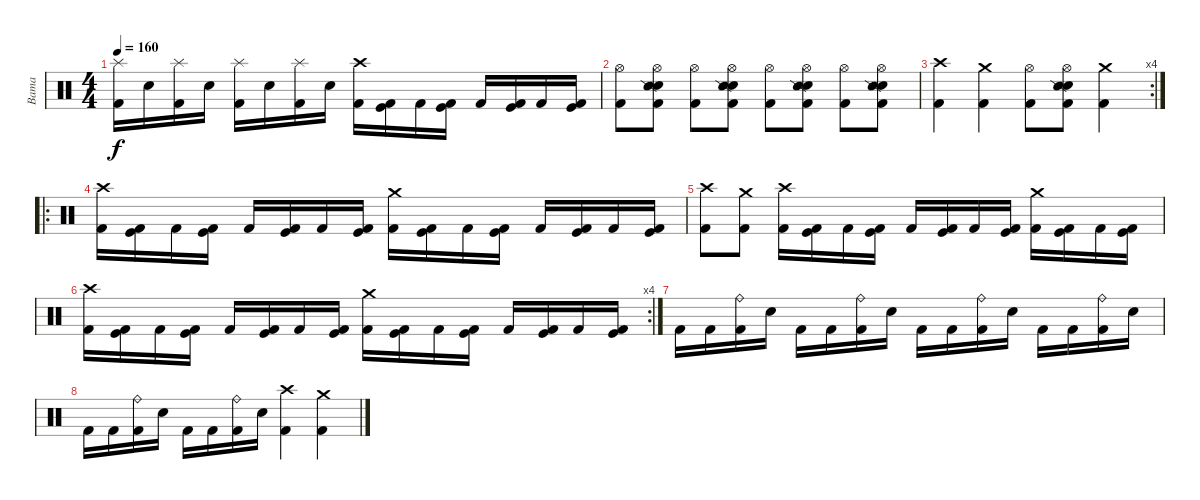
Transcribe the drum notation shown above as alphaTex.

\track ("Bama" "Bama") {instrument percussion}
\staff {score}
\articulation defaults
\ts (4 4)
\tempo 160
\clef neutral
\ks c
("Splash (hit)" "Kick (hit) 2").16{dy f} "Electric Snare (hit)".16 ("Splash (hit)" "Kick (hit) 2").16 "Electric Snare (hit)".16 ("Splash (hit)" "Kick (hit) 2").16 "Electric Snare (hit)".16 ("Splash (hit)" "Kick (hit) 2").16 "Electric Snare (hit)".16 ("Crash high (hit)" "Kick (hit) 2").16 ("Kick (hit)" "Kick (hit) 2").16 "Kick (hit) 2".16 ("Kick (hit)" "Kick (hit) 2").16 "Kick (hit) 2".16 ("Kick (hit)" "Kick (hit) 2").16 "Kick (hit) 2".16 ("Kick (hit)" "Kick (hit) 2").16 |
("Hi-Hat (open)" "Kick (hit) 2").8 ("Hi-Hat (open)" "Electric Snare (hit)" "Snare (side stick) 2" "Kick (hit) 2").8 ("Hi-Hat (open)" "Kick (hit) 2").8 ("Hi-Hat (open)" "Electric Snare (hit)" "Snare (side stick) 2" "Kick (hit) 2").8 ("Hi-Hat (open)" "Kick (hit) 2").8 ("Hi-Hat (open)" "Electric Snare (hit)" "Snare (side stick) 2" "Kick (hit) 2").8 ("Hi-Hat (open)" "Kick (hit) 2").8 ("Hi-Hat (open)" "Electric Snare (hit)" "Snare (side stick) 2" "Kick (hit) 2").8 |
\rc 4
("Crash high (hit)" "Kick (hit) 2").4 ("Crash medium (hit)" "Kick (hit) 2").4 ("Hi-Hat (open)" "Kick (hit) 2").8 ("Hi-Hat (open)" "Electric Snare (hit)" "Snare (side stick) 2" "Kick (hit) 2").8 ("Crash medium (hit)" "Kick (hit) 2").4 |
\ro
("Crash high (hit)" "Kick (hit) 2").16 ("Kick (hit)" "Kick (hit) 2").16 "Kick (hit) 2".16 ("Kick (hit)" "Kick (hit) 2").16 "Kick (hit) 2".16 ("Kick (hit)" "Kick (hit) 2").16 "Kick (hit) 2".16 ("Kick (hit)" "Kick (hit) 2").16 ("Crash medium (hit)" "Kick (hit) 2").16 ("Kick (hit)" "Kick (hit) 2").16 "Kick (hit) 2".16 ("Kick (hit)" "Kick (hit) 2").16 "Kick (hit) 2".16 ("Kick (hit)" "Kick (hit) 2").16 "Kick (hit) 2".16 ("Kick (hit)" "Kick (hit) 2").16 |
("Crash high (hit)" "Kick (hit) 2").8 ("Crash medium (hit)" "Kick (hit) 2").8 ("Crash high (hit)" "Kick (hit) 2").16 ("Kick (hit)" "Kick (hit) 2").16 "Kick (hit) 2".16 ("Kick (hit)" "Kick (hit) 2").16 "Kick (hit) 2".16 ("Kick (hit)" "Kick (hit) 2").16 "Kick (hit) 2".16 ("Kick (hit)" "Kick (hit) 2").16 ("Crash medium (hit)" "Kick (hit) 2").16 ("Kick (hit)" "Kick (hit) 2").16 "Kick (hit) 2".16 ("Kick (hit)" "Kick (hit) 2").16 |
\rc 4
("Crash high (hit)" "Kick (hit) 2").16 ("Kick (hit)" "Kick (hit) 2").16 "Kick (hit) 2".16 ("Kick (hit)" "Kick (hit) 2").16 "Kick (hit) 2".16 ("Kick (hit)" "Kick (hit) 2").16 "Kick (hit) 2".16 ("Kick (hit)" "Kick (hit) 2").16 ("Crash medium (hit)" "Kick (hit) 2").16 ("Kick (hit)" "Kick (hit) 2").16 "Kick (hit) 2".16 ("Kick (hit)" "Kick (hit) 2").16 "Kick (hit) 2".16 ("Kick (hit)" "Kick (hit) 2").16 "Kick (hit) 2".16 ("Kick (hit)" "Kick (hit) 2").16 |
"Kick (hit) 2".16 "Kick (hit) 2".16 ("Ride (bell)" "Kick (hit) 2").16 "Electric Snare (hit)".16 "Kick (hit) 2".16 "Kick (hit) 2".16 ("Ride (bell)" "Kick (hit) 2").16 "Electric Snare (hit)".16 "Kick (hit) 2".16 "Kick (hit) 2".16 ("Ride (bell)" "Kick (hit) 2").16 "Electric Snare (hit)".16 "Kick (hit) 2".16 "Kick (hit) 2".16 ("Ride (bell)" "Kick (hit) 2").16 "Electric Snare (hit)".16 |
"Kick (hit) 2".16 "Kick (hit) 2".16 ("Ride (bell)" "Kick (hit) 2").16 "Electric Snare (hit)".16 "Kick (hit) 2".16 "Kick (hit) 2".16 ("Ride (bell)" "Kick (hit) 2").16 "Electric Snare (hit)".16 ("Crash high (hit)" "Kick (hit) 2").4 ("Crash medium (hit)" "Kick (hit) 2").4
